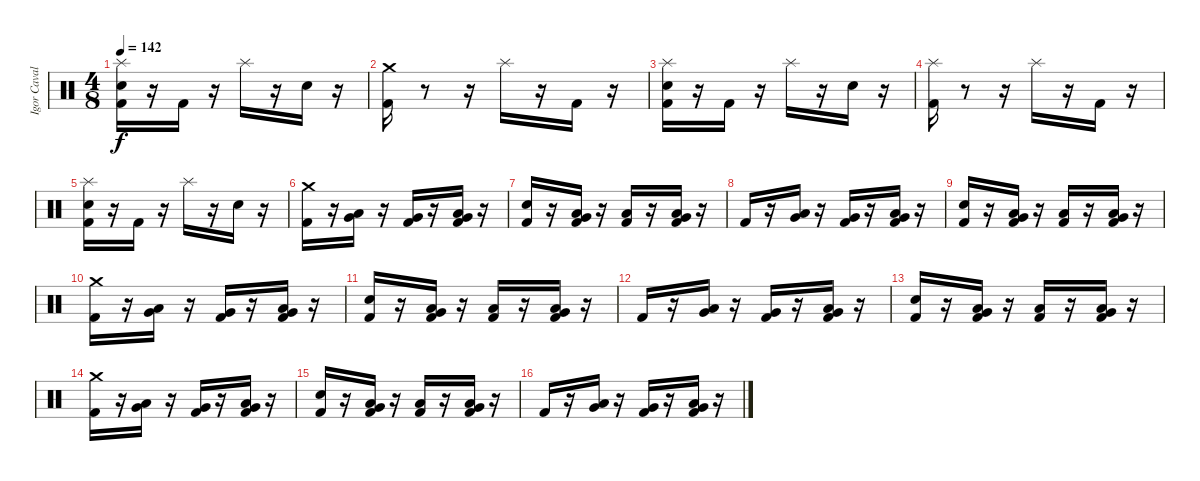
\track ("Igor Cavalera" "Igor Caval") {instrument percussion}
\staff {score}
\articulation defaults
\ts (4 8)
\tempo 142
\clef neutral
\ks c
("Electric Snare (hit)" "Kick (hit) 2" "Splash (hit)").16{dy f} r.16 "Kick (hit) 2".16 r.16 "Splash (hit)".16 r.16 "Electric Snare (hit)".16 r.16 |
("Kick (hit) 2" "Crash medium (hit)").16 r.8 r.16 "Splash (hit)".16 r.16 "Kick (hit) 2".16 r.16 |
("Electric Snare (hit)" "Kick (hit) 2" "Splash (hit)").16 r.16 "Kick (hit) 2".16 r.16 "Splash (hit)".16 r.16 "Electric Snare (hit)".16 r.16 |
("Kick (hit) 2" "Splash (hit)").16 r.8 r.16 "Splash (hit)".16 r.16 "Kick (hit) 2".16 r.16 |
("Electric Snare (hit)" "Kick (hit) 2" "Splash (hit)").16 r.16 "Kick (hit) 2".16 r.16 "Splash (hit)".16 r.16 "Electric Snare (hit)".16 r.16 |
("Kick (hit) 2" "Crash medium (hit)").16 r.16 ("Low Tom (hit)" "Very Low Tom (hit)").16 r.16 ("Kick (hit) 2" "Very Low Tom (hit)").16 r.16 ("Kick (hit) 2" "Very Low Tom (hit)" "Low Floor Tom (hit)").16 r.16 |
("Electric Snare (hit)" "Kick (hit) 2").16 r.16 ("Kick (hit) 2" "Low Floor Tom (hit)" "Very Low Tom (hit)").16 r.16 ("Kick (hit) 2" "Low Floor Tom (hit)").16 r.16 ("Kick (hit) 2" "Low Floor Tom (hit)" "Very Low Tom (hit)").16 r.16 |
"Kick (hit) 2".16 r.16 ("Low Tom (hit)" "Very Low Tom (hit)").16 r.16 ("Kick (hit) 2" "Very Low Tom (hit)").16 r.16 ("Kick (hit) 2" "Very Low Tom (hit)" "Low Floor Tom (hit)").16 r.16 |
("Electric Snare (hit)" "Kick (hit) 2").16 r.16 ("Kick (hit) 2" "Low Floor Tom (hit)" "Very Low Tom (hit)").16 r.16 ("Kick (hit) 2" "Low Floor Tom (hit)").16 r.16 ("Kick (hit) 2" "Low Floor Tom (hit)" "Very Low Tom (hit)").16 r.16 |
("Kick (hit) 2" "Crash medium (hit)").16 r.16 ("Low Tom (hit)" "Very Low Tom (hit)").16 r.16 ("Kick (hit) 2" "Very Low Tom (hit)").16 r.16 ("Kick (hit) 2" "Very Low Tom (hit)" "Low Floor Tom (hit)").16 r.16 |
("Electric Snare (hit)" "Kick (hit) 2").16 r.16 ("Kick (hit) 2" "Low Floor Tom (hit)" "Very Low Tom (hit)").16 r.16 ("Kick (hit) 2" "Low Floor Tom (hit)").16 r.16 ("Kick (hit) 2" "Low Floor Tom (hit)" "Very Low Tom (hit)").16 r.16 |
"Kick (hit) 2".16 r.16 ("Low Tom (hit)" "Very Low Tom (hit)").16 r.16 ("Kick (hit) 2" "Very Low Tom (hit)").16 r.16 ("Kick (hit) 2" "Very Low Tom (hit)" "Low Floor Tom (hit)").16 r.16 |
("Electric Snare (hit)" "Kick (hit) 2").16 r.16 ("Kick (hit) 2" "Low Floor Tom (hit)" "Very Low Tom (hit)").16 r.16 ("Kick (hit) 2" "Low Floor Tom (hit)").16 r.16 ("Kick (hit) 2" "Low Floor Tom (hit)" "Very Low Tom (hit)").16 r.16 |
("Kick (hit) 2" "Crash medium (hit)").16 r.16 ("Low Tom (hit)" "Very Low Tom (hit)").16 r.16 ("Kick (hit) 2" "Very Low Tom (hit)").16 r.16 ("Kick (hit) 2" "Very Low Tom (hit)" "Low Floor Tom (hit)").16 r.16 |
("Electric Snare (hit)" "Kick (hit) 2").16 r.16 ("Kick (hit) 2" "Low Floor Tom (hit)" "Very Low Tom (hit)").16 r.16 ("Kick (hit) 2" "Low Floor Tom (hit)").16 r.16 ("Kick (hit) 2" "Low Floor Tom (hit)" "Very Low Tom (hit)").16 r.16 |
"Kick (hit) 2".16 r.16 ("Low Tom (hit)" "Very Low Tom (hit)").16 r.16 ("Kick (hit) 2" "Very Low Tom (hit)").16 r.16 ("Kick (hit) 2" "Very Low Tom (hit)" "Low Floor Tom (hit)").16 r.16
